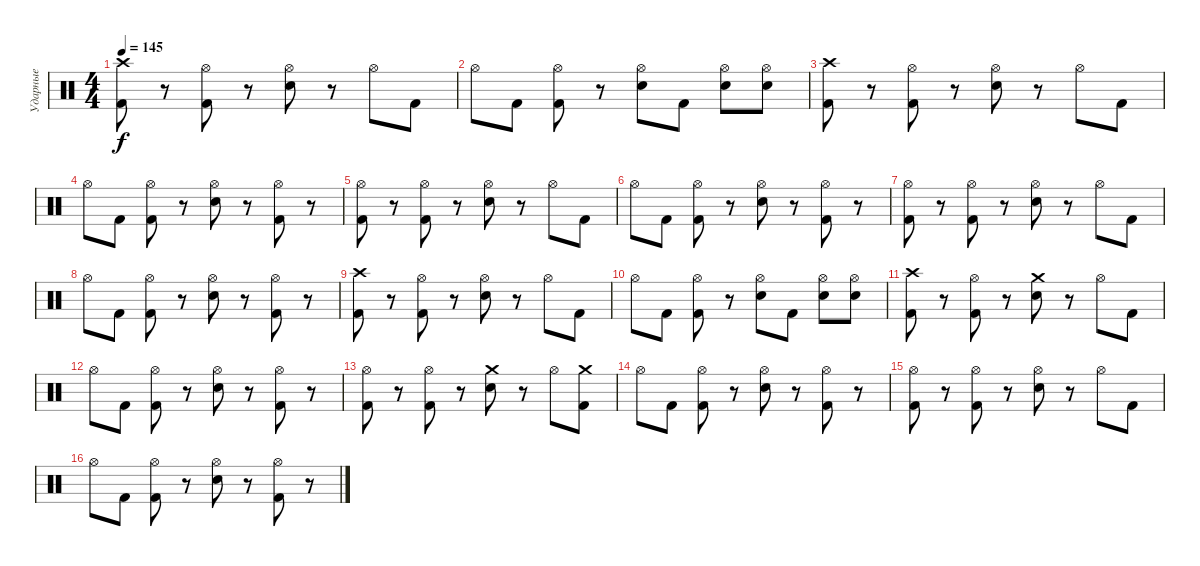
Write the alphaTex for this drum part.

\track ("Ударные" "Ударные") {instrument percussion}
\staff {score}
\articulation defaults
\ts (4 4)
\tempo 145
\clef neutral
\ks c
("Crash high (hit)" "Kick (hit) 2").8{dy f} r.8 ("Hi-Hat (open)" "Kick (hit) 2").8 r.8 ("Hi-Hat (open)" "Snare (hit) 2").8 r.8 "Hi-Hat (open)".8 "Kick (hit) 2".8 |
"Hi-Hat (open)".8 "Kick (hit) 2".8 ("Hi-Hat (open)" "Kick (hit) 2").8 r.8 ("Hi-Hat (open)" "Snare (hit) 2").8 "Kick (hit) 2".8 ("Hi-Hat (open)" "Snare (hit) 2").8 ("Hi-Hat (open)" "Snare (hit) 2").8 |
("Crash high (hit)" "Kick (hit) 2").8 r.8 ("Hi-Hat (open)" "Kick (hit) 2").8 r.8 ("Hi-Hat (open)" "Snare (hit) 2").8 r.8 "Hi-Hat (open)".8 "Kick (hit) 2".8 |
"Hi-Hat (open)".8 "Kick (hit) 2".8 ("Hi-Hat (open)" "Kick (hit) 2").8 r.8 ("Hi-Hat (open)" "Snare (hit) 2").8 r.8 ("Hi-Hat (open)" "Kick (hit) 2").8 r.8 |
("Hi-Hat (open)" "Kick (hit) 2").8 r.8 ("Hi-Hat (open)" "Kick (hit) 2").8 r.8 ("Hi-Hat (open)" "Snare (hit) 2").8 r.8 "Hi-Hat (open)".8 "Kick (hit) 2".8 |
"Hi-Hat (open)".8 "Kick (hit) 2".8 ("Hi-Hat (open)" "Kick (hit) 2").8 r.8 ("Hi-Hat (open)" "Snare (hit) 2").8 r.8 ("Hi-Hat (open)" "Kick (hit) 2").8 r.8 |
("Hi-Hat (open)" "Kick (hit) 2").8 r.8 ("Hi-Hat (open)" "Kick (hit) 2").8 r.8 ("Hi-Hat (open)" "Snare (hit) 2").8 r.8 "Hi-Hat (open)".8 "Kick (hit) 2".8 |
"Hi-Hat (open)".8 "Kick (hit) 2".8 ("Hi-Hat (open)" "Kick (hit) 2").8 r.8 ("Hi-Hat (open)" "Snare (hit) 2").8 r.8 ("Hi-Hat (open)" "Kick (hit) 2").8 r.8 |
("Crash high (hit)" "Kick (hit) 2").8 r.8 ("Hi-Hat (open)" "Kick (hit) 2").8 r.8 ("Hi-Hat (open)" "Snare (hit) 2").8 r.8 "Hi-Hat (open)".8 "Kick (hit) 2".8 |
"Hi-Hat (open)".8 "Kick (hit) 2".8 ("Hi-Hat (open)" "Kick (hit) 2").8 r.8 ("Hi-Hat (open)" "Snare (hit) 2").8 "Kick (hit) 2".8 ("Hi-Hat (open)" "Snare (hit) 2").8 ("Hi-Hat (open)" "Snare (hit) 2").8 |
("Crash high (hit)" "Kick (hit) 2").8 r.8 ("Hi-Hat (open)" "Kick (hit) 2").8 r.8 ("Crash medium (hit)" "Snare (hit) 2").8 r.8 "Hi-Hat (open)".8 "Kick (hit) 2".8 |
"Hi-Hat (open)".8 "Kick (hit) 2".8 ("Hi-Hat (open)" "Kick (hit) 2").8 r.8 ("Hi-Hat (open)" "Snare (hit) 2").8 r.8 ("Hi-Hat (open)" "Kick (hit) 2").8 r.8 |
("Hi-Hat (open)" "Kick (hit) 2").8 r.8 ("Hi-Hat (open)" "Kick (hit) 2").8 r.8 ("Crash medium (hit)" "Snare (hit) 2").8 r.8 "Hi-Hat (open)".8 ("Crash medium (hit)" "Kick (hit) 2").8 |
"Hi-Hat (open)".8 "Kick (hit) 2".8 ("Hi-Hat (open)" "Kick (hit) 2").8 r.8 ("Hi-Hat (open)" "Snare (hit) 2").8 r.8 ("Hi-Hat (open)" "Kick (hit) 2").8 r.8 |
("Hi-Hat (open)" "Kick (hit) 2").8 r.8 ("Hi-Hat (open)" "Kick (hit) 2").8 r.8 ("Hi-Hat (open)" "Snare (hit) 2").8 r.8 "Hi-Hat (open)".8 "Kick (hit) 2".8 |
"Hi-Hat (open)".8 "Kick (hit) 2".8 ("Hi-Hat (open)" "Kick (hit) 2").8 r.8 ("Hi-Hat (open)" "Snare (hit) 2").8 r.8 ("Hi-Hat (open)" "Kick (hit) 2").8 r.8
